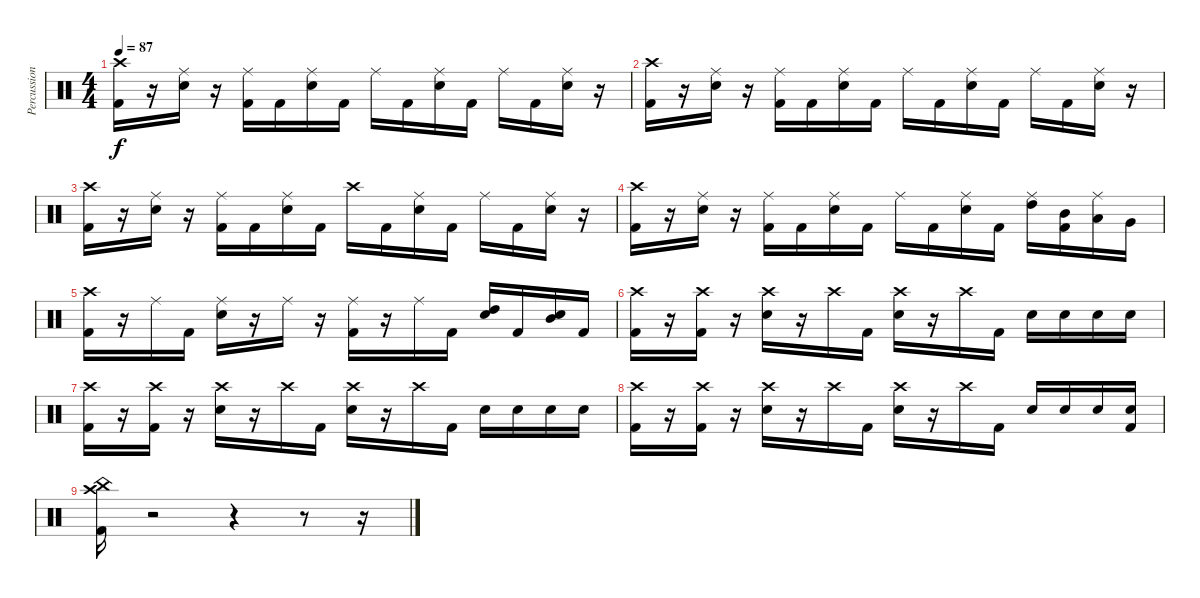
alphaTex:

\track ("Percussion" "Percussion") {instrument percussion}
\staff {score}
\articulation defaults
\ts (4 4)
\tempo 87
\clef neutral
\ks c
("Kick (hit) 2" "Crash high (hit)").16{dy f} r.16 ("Electric Snare (hit)" "Ride (middle)").16 r.16 ("Kick (hit) 2" "Ride (middle)").16 "Kick (hit) 2".16 ("Electric Snare (hit)" "Ride (middle)").16 "Kick (hit) 2".16 "Ride (middle)".16 "Kick (hit) 2".16 ("Electric Snare (hit)" "Ride (middle)").16 "Kick (hit) 2".16 "Ride (middle)".16 "Kick (hit) 2".16 ("Electric Snare (hit)" "Ride (middle)").16 r.16 |
("Kick (hit) 2" "Crash high (hit)").16 r.16 ("Electric Snare (hit)" "Ride (middle)").16 r.16 ("Kick (hit) 2" "Ride (middle)").16 "Kick (hit) 2".16 ("Electric Snare (hit)" "Ride (middle)").16 "Kick (hit) 2".16 "Ride (middle)".16 "Kick (hit) 2".16 ("Electric Snare (hit)" "Ride (middle)").16 "Kick (hit) 2".16 "Ride (middle)".16 "Kick (hit) 2".16 ("Electric Snare (hit)" "Ride (middle)").16 r.16 |
("Kick (hit) 2" "Crash high (hit)").16 r.16 ("Electric Snare (hit)" "Ride (middle)").16 r.16 ("Kick (hit) 2" "Ride (middle)").16 "Kick (hit) 2".16 ("Electric Snare (hit)" "Ride (middle)").16 "Kick (hit) 2".16 "Crash high (hit)".16 "Kick (hit) 2".16 ("Electric Snare (hit)" "Ride (middle)").16 "Kick (hit) 2".16 "Ride (middle)".16 "Kick (hit) 2".16 ("Electric Snare (hit)" "Ride (middle)").16 r.16 |
("Kick (hit) 2" "Crash high (hit)").16 r.16 ("Electric Snare (hit)" "Ride (middle)").16 r.16 ("Kick (hit) 2" "Ride (middle)").16 "Kick (hit) 2".16 ("Electric Snare (hit)" "Ride (middle)").16 "Kick (hit) 2".16 "Ride (middle)".16 "Kick (hit) 2".16 ("Electric Snare (hit)" "Ride (middle)").16 "Kick (hit) 2".16 ("High Tom (hit)" "Ride (middle)").16 ("Kick (hit) 2" "Mid Tom (hit)").16 ("Low Tom (hit)" "Ride (middle)").16 "Very Low Tom (hit)".16 |
("Kick (hit) 2" "Crash high (hit)").16 r.16 "Ride (middle)".16 "Kick (hit) 2".16 ("Electric Snare (hit)" "Ride (middle)").16 r.16 "Ride (middle)".16 r.16 ("Kick (hit) 2" "Ride (middle)").16 r.16 "Ride (middle)".16 "Kick (hit) 2".16 ("Electric Snare (hit)" "High Tom (hit)").16 "Kick (hit) 2".16 ("Electric Snare (hit)" "Mid Tom (hit)").16 "Kick (hit) 2".16 |
("Kick (hit) 2" "Crash high (hit)").16 r.16 ("Kick (hit) 2" "Crash high (hit)").16 r.16 ("Electric Snare (hit)" "Crash high (hit)").16 r.16 "Crash high (hit)".16 "Kick (hit) 2".16 ("Electric Snare (hit)" "Crash high (hit)").16 r.16 "Crash high (hit)".16 "Kick (hit) 2".16 "Electric Snare (hit)".16 "Electric Snare (hit)".16 "Electric Snare (hit)".16 "Electric Snare (hit)".16 |
("Kick (hit) 2" "Crash high (hit)").16 r.16 ("Kick (hit) 2" "Crash high (hit)").16 r.16 ("Electric Snare (hit)" "Crash high (hit)").16 r.16 "Crash high (hit)".16 "Kick (hit) 2".16 ("Electric Snare (hit)" "Crash high (hit)").16 r.16 "Crash high (hit)".16 "Kick (hit) 2".16 "Electric Snare (hit)".16 "Electric Snare (hit)".16 "Electric Snare (hit)".16 "Electric Snare (hit)".16 |
("Kick (hit) 2" "Crash high (hit)").16 r.16 ("Kick (hit) 2" "Crash high (hit)").16 r.16 ("Electric Snare (hit)" "Crash high (hit)").16 r.16 "Crash high (hit)".16 "Kick (hit) 2".16 ("Electric Snare (hit)" "Crash high (hit)").16 r.16 "Crash high (hit)".16 "Kick (hit) 2".16 "Electric Snare (hit)".16 "Electric Snare (hit)".16 "Electric Snare (hit)".16 ("Kick (hit) 2" "Electric Snare (hit)").16 |
("Kick (hit) 2" "China (hit)" "Crash high (hit)").16 r.2 r.4 r.8 r.16
